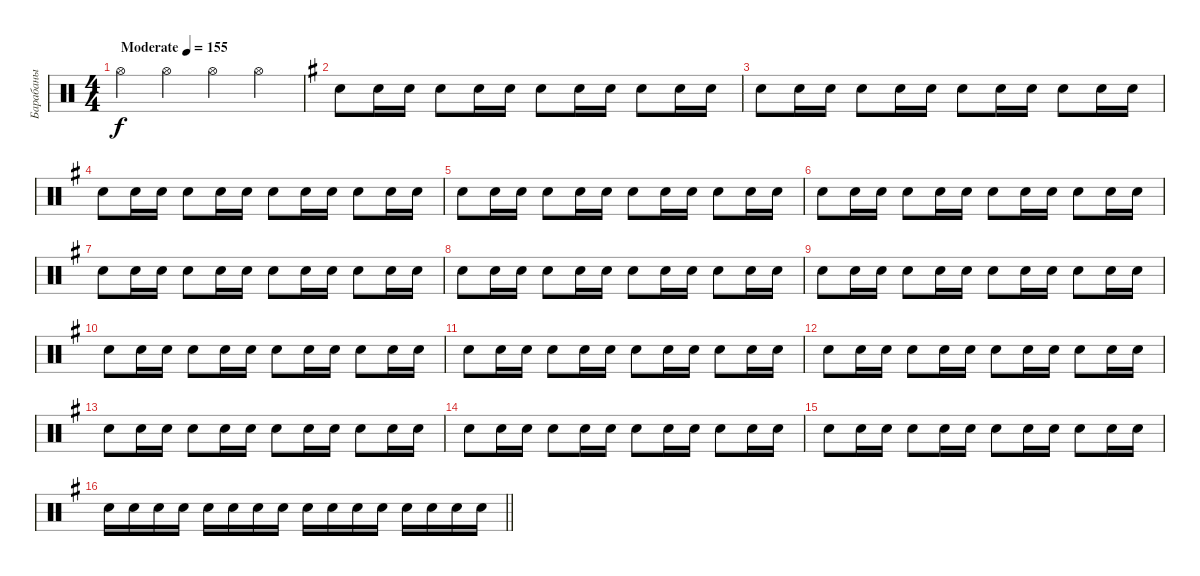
\track ("Барабаны" "Барабаны") {instrument percussion}
\staff {score}
\articulation defaults
\ts (4 4)
\tempo (155 "Moderate")
\clef neutral
\ks c "Hi-Hat (open)".4{dy f} "Hi-Hat (open)".4 "Hi-Hat (open)".4 "Hi-Hat (open)".4
|
\ks eminor "Electric Snare (hit)".8{volume 6} "Electric Snare (hit)".16 "Electric Snare (hit)".16 "Electric Snare (hit)".8 "Electric Snare (hit)".16 "Electric Snare (hit)".16 "Electric Snare (hit)".8 "Electric Snare (hit)".16 "Electric Snare (hit)".16 "Electric Snare (hit)".8 "Electric Snare (hit)".16 "Electric Snare (hit)".16
|
"Electric Snare (hit)".8 "Electric Snare (hit)".16 "Electric Snare (hit)".16 "Electric Snare (hit)".8 "Electric Snare (hit)".16 "Electric Snare (hit)".16 "Electric Snare (hit)".8 "Electric Snare (hit)".16 "Electric Snare (hit)".16 "Electric Snare (hit)".8 "Electric Snare (hit)".16 "Electric Snare (hit)".16 |
"Electric Snare (hit)".8 "Electric Snare (hit)".16 "Electric Snare (hit)".16 "Electric Snare (hit)".8 "Electric Snare (hit)".16 "Electric Snare (hit)".16 "Electric Snare (hit)".8 "Electric Snare (hit)".16 "Electric Snare (hit)".16 "Electric Snare (hit)".8 "Electric Snare (hit)".16 "Electric Snare (hit)".16 |
"Electric Snare (hit)".8 "Electric Snare (hit)".16 "Electric Snare (hit)".16 "Electric Snare (hit)".8 "Electric Snare (hit)".16 "Electric Snare (hit)".16 "Electric Snare (hit)".8 "Electric Snare (hit)".16 "Electric Snare (hit)".16 "Electric Snare (hit)".8 "Electric Snare (hit)".16 "Electric Snare (hit)".16 |
"Electric Snare (hit)".8 "Electric Snare (hit)".16 "Electric Snare (hit)".16 "Electric Snare (hit)".8 "Electric Snare (hit)".16 "Electric Snare (hit)".16 "Electric Snare (hit)".8 "Electric Snare (hit)".16 "Electric Snare (hit)".16 "Electric Snare (hit)".8 "Electric Snare (hit)".16 "Electric Snare (hit)".16 |
"Electric Snare (hit)".8 "Electric Snare (hit)".16 "Electric Snare (hit)".16 "Electric Snare (hit)".8 "Electric Snare (hit)".16 "Electric Snare (hit)".16 "Electric Snare (hit)".8 "Electric Snare (hit)".16 "Electric Snare (hit)".16 "Electric Snare (hit)".8 "Electric Snare (hit)".16 "Electric Snare (hit)".16 |
"Electric Snare (hit)".8 "Electric Snare (hit)".16 "Electric Snare (hit)".16 "Electric Snare (hit)".8 "Electric Snare (hit)".16 "Electric Snare (hit)".16 "Electric Snare (hit)".8 "Electric Snare (hit)".16 "Electric Snare (hit)".16 "Electric Snare (hit)".8 "Electric Snare (hit)".16 "Electric Snare (hit)".16 |
"Electric Snare (hit)".8 "Electric Snare (hit)".16 "Electric Snare (hit)".16 "Electric Snare (hit)".8 "Electric Snare (hit)".16 "Electric Snare (hit)".16 "Electric Snare (hit)".8 "Electric Snare (hit)".16 "Electric Snare (hit)".16 "Electric Snare (hit)".8 "Electric Snare (hit)".16 "Electric Snare (hit)".16 |
"Electric Snare (hit)".8 "Electric Snare (hit)".16 "Electric Snare (hit)".16 "Electric Snare (hit)".8 "Electric Snare (hit)".16 "Electric Snare (hit)".16 "Electric Snare (hit)".8 "Electric Snare (hit)".16 "Electric Snare (hit)".16 "Electric Snare (hit)".8 "Electric Snare (hit)".16 "Electric Snare (hit)".16 |
"Electric Snare (hit)".8 "Electric Snare (hit)".16 "Electric Snare (hit)".16 "Electric Snare (hit)".8 "Electric Snare (hit)".16 "Electric Snare (hit)".16 "Electric Snare (hit)".8 "Electric Snare (hit)".16 "Electric Snare (hit)".16 "Electric Snare (hit)".8 "Electric Snare (hit)".16 "Electric Snare (hit)".16 |
"Electric Snare (hit)".8 "Electric Snare (hit)".16 "Electric Snare (hit)".16 "Electric Snare (hit)".8 "Electric Snare (hit)".16 "Electric Snare (hit)".16 "Electric Snare (hit)".8 "Electric Snare (hit)".16 "Electric Snare (hit)".16 "Electric Snare (hit)".8 "Electric Snare (hit)".16 "Electric Snare (hit)".16 |
"Electric Snare (hit)".8 "Electric Snare (hit)".16 "Electric Snare (hit)".16 "Electric Snare (hit)".8 "Electric Snare (hit)".16 "Electric Snare (hit)".16 "Electric Snare (hit)".8 "Electric Snare (hit)".16 "Electric Snare (hit)".16 "Electric Snare (hit)".8 "Electric Snare (hit)".16 "Electric Snare (hit)".16 |
"Electric Snare (hit)".8 "Electric Snare (hit)".16 "Electric Snare (hit)".16 "Electric Snare (hit)".8 "Electric Snare (hit)".16 "Electric Snare (hit)".16 "Electric Snare (hit)".8 "Electric Snare (hit)".16 "Electric Snare (hit)".16 "Electric Snare (hit)".8 "Electric Snare (hit)".16 "Electric Snare (hit)".16 |
"Electric Snare (hit)".8 "Electric Snare (hit)".16 "Electric Snare (hit)".16 "Electric Snare (hit)".8 "Electric Snare (hit)".16 "Electric Snare (hit)".16 "Electric Snare (hit)".8 "Electric Snare (hit)".16 "Electric Snare (hit)".16 "Electric Snare (hit)".8 "Electric Snare (hit)".16 "Electric Snare (hit)".16 |
\barLineRight lightlight "Electric Snare (hit)".16{volume 11} "Electric Snare (hit)".16 "Electric Snare (hit)".16 "Electric Snare (hit)".16 "Electric Snare (hit)".16 "Electric Snare (hit)".16 "Electric Snare (hit)".16 "Electric Snare (hit)".16 "Electric Snare (hit)".16 "Electric Snare (hit)".16 "Electric Snare (hit)".16 "Electric Snare (hit)".16 "Electric Snare (hit)".16 "Electric Snare (hit)".16 "Electric Snare (hit)".16 "Electric Snare (hit)".16
